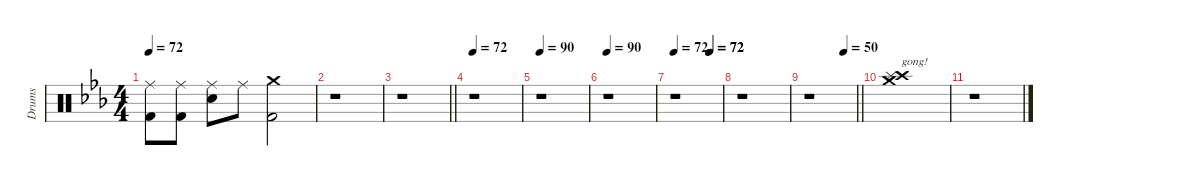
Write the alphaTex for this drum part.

\defaultSystemsLayout 8
\hideDynamics
\bracketExtendMode nobrackets
\otherSystemsTrackNameOrientation horizontal
\track ("Drumkit" "Drums") {defaultSystemsLayout 4 instrument percussion}
\staff {score}
\articulation defaults
\ts (4 4)
\tempo 72
\clef neutral
\ks eb
("Ride (middle)"{acc forcenatural} "Kick (hit) 2"{acc forcenatural}).8{dy f beam Down} ("Ride (middle)"{acc forcenatural} "Kick (hit) 2"{acc forcenatural}).8{beam Down} ("Ride (middle)"{acc forcenatural} "Snare (hit) 2"{acc forcenatural}).8{beam Down} "Ride (middle)"{acc forcenatural}.8{beam Down} ("Crash medium (hit)"{acc forcenatural} "Kick (hit) 2"{acc forcenatural}).2{beam Down} |
r.1{beam Down} |
\barLineRight lightlight
r.1{beam Down} |
\tempo 72
r.1{beam Down} |
\tempo 90
r.1{beam Down} |
\tempo 90
r.1{beam Down} |
\tempo 72
\tempo (72 0.7499)
\tempo (72 0.75)
r.1{beam Down} |
r.1{beam Down} |
\tempo (50 0.75)
\barLineRight lightlight
r.1{beam Down} |
("Crash high (hit)"{acc forcenatural} "Splash (hit)"{acc forcenatural} "Crash medium (hit)"{acc forcenatural}).1{txt "gong!" beam Down} |
r.1{beam Down}
